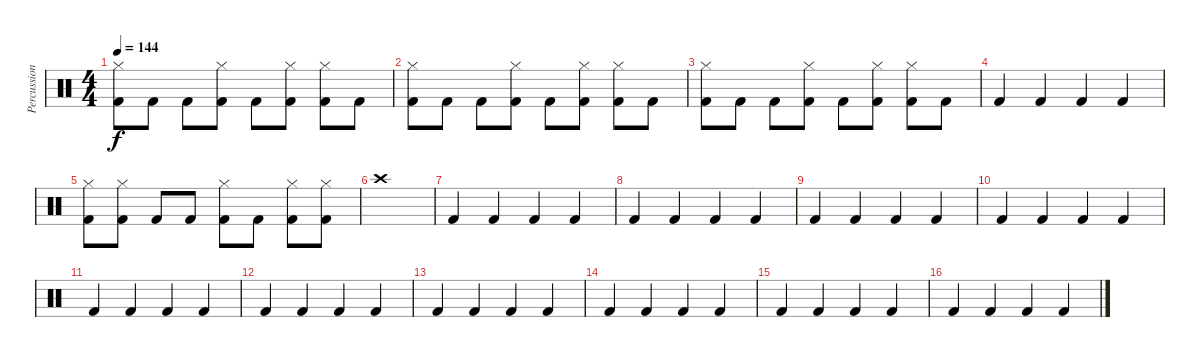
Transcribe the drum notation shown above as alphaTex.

\track ("Percussion" "Percussion") {instrument percussion}
\staff {score}
\articulation defaults
\ts (4 4)
\tempo 144
\clef neutral
\ks c
("Hi-Hat (closed)" "Kick (hit) 2").8{dy f} "Kick (hit) 2".8 "Kick (hit) 2".8 ("Hi-Hat (closed)" "Kick (hit) 2").8 "Kick (hit) 2".8 ("Hi-Hat (closed)" "Kick (hit) 2").8 ("Hi-Hat (closed)" "Kick (hit) 2").8 "Kick (hit) 2".8 |
("Hi-Hat (closed)" "Kick (hit) 2").8 "Kick (hit) 2".8 "Kick (hit) 2".8 ("Hi-Hat (closed)" "Kick (hit) 2").8 "Kick (hit) 2".8 ("Hi-Hat (closed)" "Kick (hit) 2").8 ("Hi-Hat (closed)" "Kick (hit) 2").8 "Kick (hit) 2".8 |
("Hi-Hat (closed)" "Kick (hit) 2").8 "Kick (hit) 2".8 "Kick (hit) 2".8 ("Hi-Hat (closed)" "Kick (hit) 2").8 "Kick (hit) 2".8 ("Hi-Hat (closed)" "Kick (hit) 2").8 ("Hi-Hat (closed)" "Kick (hit) 2").8 "Kick (hit) 2".8 |
"Kick (hit) 2".4 "Kick (hit) 2".4 "Kick (hit) 2".4 "Kick (hit) 2".4 |
("Hi-Hat (closed)" "Kick (hit) 2").8 ("Hi-Hat (closed)" "Kick (hit) 2").8 "Kick (hit) 2".8 "Kick (hit) 2".8 ("Hi-Hat (closed)" "Kick (hit) 2").8 "Kick (hit) 2".8 ("Hi-Hat (closed)" "Kick (hit) 2").8 ("Hi-Hat (closed)" "Kick (hit) 2").8 |
"Crash high (hit)".1 |
"Kick (hit) 2".4 "Kick (hit) 2".4 "Kick (hit) 2".4 "Kick (hit) 2".4 |
"Kick (hit) 2".4 "Kick (hit) 2".4 "Kick (hit) 2".4 "Kick (hit) 2".4 |
"Kick (hit) 2".4 "Kick (hit) 2".4 "Kick (hit) 2".4 "Kick (hit) 2".4 |
"Kick (hit) 2".4 "Kick (hit) 2".4 "Kick (hit) 2".4 "Kick (hit) 2".4 |
"Kick (hit) 2".4 "Kick (hit) 2".4 "Kick (hit) 2".4 "Kick (hit) 2".4 |
"Kick (hit) 2".4 "Kick (hit) 2".4 "Kick (hit) 2".4 "Kick (hit) 2".4 |
"Kick (hit) 2".4 "Kick (hit) 2".4 "Kick (hit) 2".4 "Kick (hit) 2".4 |
"Kick (hit) 2".4 "Kick (hit) 2".4 "Kick (hit) 2".4 "Kick (hit) 2".4 |
"Kick (hit) 2".4 "Kick (hit) 2".4 "Kick (hit) 2".4 "Kick (hit) 2".4 |
"Kick (hit) 2".4 "Kick (hit) 2".4 "Kick (hit) 2".4 "Kick (hit) 2".4
